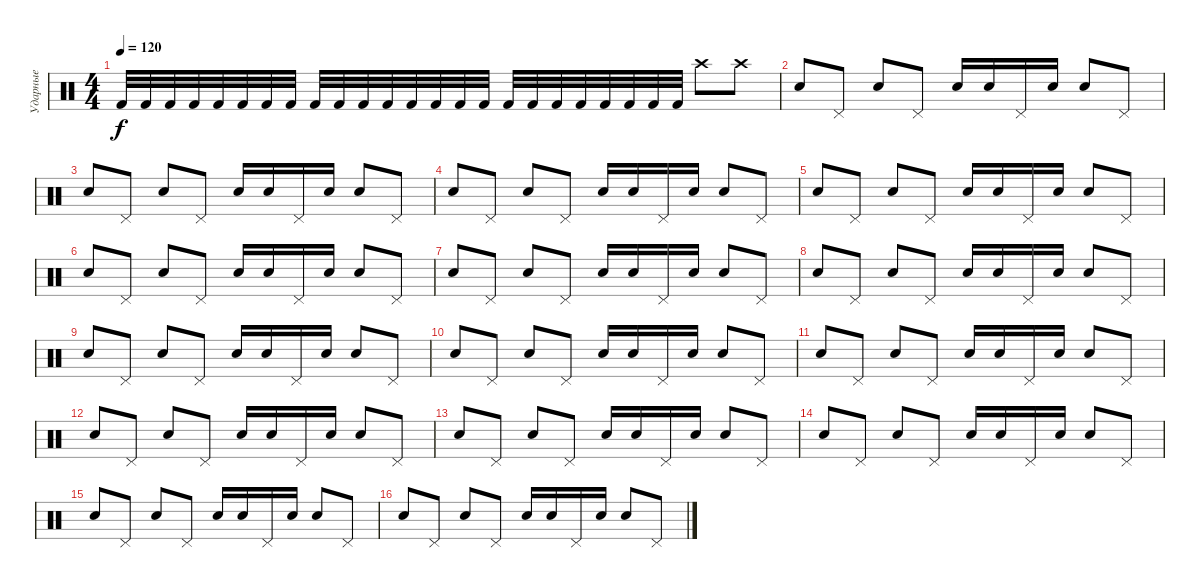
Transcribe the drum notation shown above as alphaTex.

\track ("Ударные" "Ударные") {instrument percussion}
\staff {score}
\articulation defaults
\ts (4 4)
\tempo 120
\clef neutral
\ks c "Kick (hit) 2".32{dy f} "Kick (hit) 2".32 "Kick (hit) 2".32 "Kick (hit) 2".32 "Kick (hit) 2".32 "Kick (hit) 2".32 "Kick (hit) 2".32 "Kick (hit) 2".32 "Kick (hit) 2".32 "Kick (hit) 2".32 "Kick (hit) 2".32 "Kick (hit) 2".32 "Kick (hit) 2".32 "Kick (hit) 2".32 "Kick (hit) 2".32 "Kick (hit) 2".32 "Kick (hit) 2".32 "Kick (hit) 2".32 "Kick (hit) 2".32 "Kick (hit) 2".32 "Kick (hit) 2".32 "Kick (hit) 2".32 "Kick (hit) 2".32 "Kick (hit) 2".32 "Crash high (hit)".8 "Crash high (hit)".8
|
"Snare (hit) 2".8 "Pedal Hi-Hat (hit)".8 "Snare (hit) 2".8 "Pedal Hi-Hat (hit)".8 "Snare (hit) 2".16 "Snare (hit) 2".16 "Pedal Hi-Hat (hit)".16 "Snare (hit) 2".16 "Snare (hit) 2".8 "Pedal Hi-Hat (hit)".8 |
"Snare (hit) 2".8 "Pedal Hi-Hat (hit)".8 "Snare (hit) 2".8 "Pedal Hi-Hat (hit)".8 "Snare (hit) 2".16 "Snare (hit) 2".16 "Pedal Hi-Hat (hit)".16 "Snare (hit) 2".16 "Snare (hit) 2".8 "Pedal Hi-Hat (hit)".8 |
"Snare (hit) 2".8 "Pedal Hi-Hat (hit)".8 "Snare (hit) 2".8 "Pedal Hi-Hat (hit)".8 "Snare (hit) 2".16 "Snare (hit) 2".16 "Pedal Hi-Hat (hit)".16 "Snare (hit) 2".16 "Snare (hit) 2".8 "Pedal Hi-Hat (hit)".8 |
"Snare (hit) 2".8 "Pedal Hi-Hat (hit)".8 "Snare (hit) 2".8 "Pedal Hi-Hat (hit)".8 "Snare (hit) 2".16 "Snare (hit) 2".16 "Pedal Hi-Hat (hit)".16 "Snare (hit) 2".16 "Snare (hit) 2".8 "Pedal Hi-Hat (hit)".8 |
"Snare (hit) 2".8 "Pedal Hi-Hat (hit)".8 "Snare (hit) 2".8 "Pedal Hi-Hat (hit)".8 "Snare (hit) 2".16 "Snare (hit) 2".16 "Pedal Hi-Hat (hit)".16 "Snare (hit) 2".16 "Snare (hit) 2".8 "Pedal Hi-Hat (hit)".8 |
"Snare (hit) 2".8 "Pedal Hi-Hat (hit)".8 "Snare (hit) 2".8 "Pedal Hi-Hat (hit)".8 "Snare (hit) 2".16 "Snare (hit) 2".16 "Pedal Hi-Hat (hit)".16 "Snare (hit) 2".16 "Snare (hit) 2".8 "Pedal Hi-Hat (hit)".8 |
"Snare (hit) 2".8 "Pedal Hi-Hat (hit)".8 "Snare (hit) 2".8 "Pedal Hi-Hat (hit)".8 "Snare (hit) 2".16 "Snare (hit) 2".16 "Pedal Hi-Hat (hit)".16 "Snare (hit) 2".16 "Snare (hit) 2".8 "Pedal Hi-Hat (hit)".8 |
"Snare (hit) 2".8 "Pedal Hi-Hat (hit)".8 "Snare (hit) 2".8 "Pedal Hi-Hat (hit)".8 "Snare (hit) 2".16 "Snare (hit) 2".16 "Pedal Hi-Hat (hit)".16 "Snare (hit) 2".16 "Snare (hit) 2".8 "Pedal Hi-Hat (hit)".8 |
"Snare (hit) 2".8 "Pedal Hi-Hat (hit)".8 "Snare (hit) 2".8 "Pedal Hi-Hat (hit)".8 "Snare (hit) 2".16 "Snare (hit) 2".16 "Pedal Hi-Hat (hit)".16 "Snare (hit) 2".16 "Snare (hit) 2".8 "Pedal Hi-Hat (hit)".8 |
"Snare (hit) 2".8 "Pedal Hi-Hat (hit)".8 "Snare (hit) 2".8 "Pedal Hi-Hat (hit)".8 "Snare (hit) 2".16 "Snare (hit) 2".16 "Pedal Hi-Hat (hit)".16 "Snare (hit) 2".16 "Snare (hit) 2".8 "Pedal Hi-Hat (hit)".8 |
"Snare (hit) 2".8 "Pedal Hi-Hat (hit)".8 "Snare (hit) 2".8 "Pedal Hi-Hat (hit)".8 "Snare (hit) 2".16 "Snare (hit) 2".16 "Pedal Hi-Hat (hit)".16 "Snare (hit) 2".16 "Snare (hit) 2".8 "Pedal Hi-Hat (hit)".8 |
"Snare (hit) 2".8 "Pedal Hi-Hat (hit)".8 "Snare (hit) 2".8 "Pedal Hi-Hat (hit)".8 "Snare (hit) 2".16 "Snare (hit) 2".16 "Pedal Hi-Hat (hit)".16 "Snare (hit) 2".16 "Snare (hit) 2".8 "Pedal Hi-Hat (hit)".8 |
"Snare (hit) 2".8 "Pedal Hi-Hat (hit)".8 "Snare (hit) 2".8 "Pedal Hi-Hat (hit)".8 "Snare (hit) 2".16 "Snare (hit) 2".16 "Pedal Hi-Hat (hit)".16 "Snare (hit) 2".16 "Snare (hit) 2".8 "Pedal Hi-Hat (hit)".8 |
"Snare (hit) 2".8 "Pedal Hi-Hat (hit)".8 "Snare (hit) 2".8 "Pedal Hi-Hat (hit)".8 "Snare (hit) 2".16 "Snare (hit) 2".16 "Pedal Hi-Hat (hit)".16 "Snare (hit) 2".16 "Snare (hit) 2".8 "Pedal Hi-Hat (hit)".8 |
"Snare (hit) 2".8 "Pedal Hi-Hat (hit)".8 "Snare (hit) 2".8 "Pedal Hi-Hat (hit)".8 "Snare (hit) 2".16 "Snare (hit) 2".16 "Pedal Hi-Hat (hit)".16 "Snare (hit) 2".16 "Snare (hit) 2".8 "Pedal Hi-Hat (hit)".8
